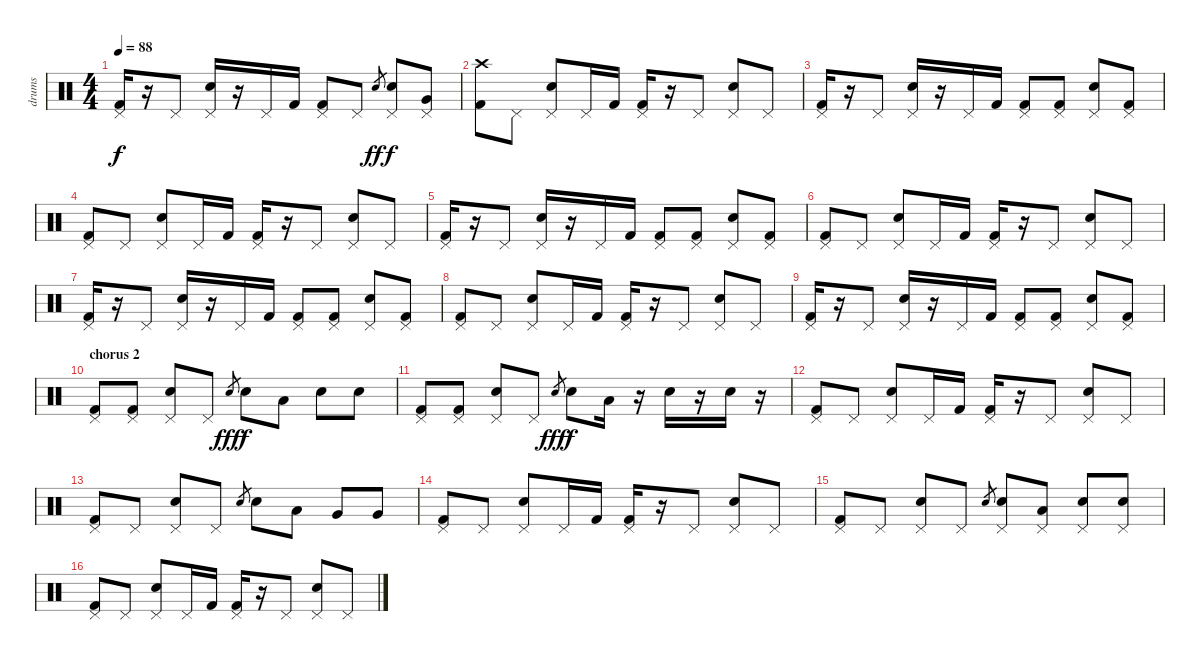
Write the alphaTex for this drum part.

\track ("drums" "drums") {instrument percussion}
\staff {score}
\articulation defaults
\ts (4 4)
\tempo 88
\clef neutral
\ks c
("Kick (hit) 2" "Pedal Hi-Hat (hit)").16{dy f} r.16 "Pedal Hi-Hat (hit)".8 ("Electric Snare (hit)" "Pedal Hi-Hat (hit)").16 r.16 "Pedal Hi-Hat (hit)".16 "Kick (hit) 2".16 ("Kick (hit) 2" "Pedal Hi-Hat (hit)").8 "Pedal Hi-Hat (hit)".8 "Electric Snare (hit)".8{gr dy ff} ("Electric Snare (hit)" "Pedal Hi-Hat (hit)").8{dy f} ("Very Low Tom (hit)" "Pedal Hi-Hat (hit)").8 |
("Kick (hit) 2" "Crash high (hit)").8 "Pedal Hi-Hat (hit)".8 ("Electric Snare (hit)" "Pedal Hi-Hat (hit)").8 "Pedal Hi-Hat (hit)".16 "Kick (hit) 2".16 ("Kick (hit) 2" "Pedal Hi-Hat (hit)").16 r.16 "Pedal Hi-Hat (hit)".8 ("Electric Snare (hit)" "Pedal Hi-Hat (hit)").8 "Pedal Hi-Hat (hit)".8 |
("Kick (hit) 2" "Pedal Hi-Hat (hit)").16 r.16 "Pedal Hi-Hat (hit)".8 ("Electric Snare (hit)" "Pedal Hi-Hat (hit)").16 r.16 "Pedal Hi-Hat (hit)".16 "Kick (hit) 2".16 ("Kick (hit) 2" "Pedal Hi-Hat (hit)").8 ("Kick (hit) 2" "Pedal Hi-Hat (hit)").8 ("Electric Snare (hit)" "Pedal Hi-Hat (hit)").8 ("Kick (hit) 2" "Pedal Hi-Hat (hit)").8 |
("Kick (hit) 2" "Pedal Hi-Hat (hit)").8 "Pedal Hi-Hat (hit)".8 ("Electric Snare (hit)" "Pedal Hi-Hat (hit)").8 "Pedal Hi-Hat (hit)".16 "Kick (hit) 2".16 ("Kick (hit) 2" "Pedal Hi-Hat (hit)").16 r.16 "Pedal Hi-Hat (hit)".8 ("Electric Snare (hit)" "Pedal Hi-Hat (hit)").8 "Pedal Hi-Hat (hit)".8 |
("Kick (hit) 2" "Pedal Hi-Hat (hit)").16 r.16 "Pedal Hi-Hat (hit)".8 ("Electric Snare (hit)" "Pedal Hi-Hat (hit)").16 r.16 "Pedal Hi-Hat (hit)".16 "Kick (hit) 2".16 ("Kick (hit) 2" "Pedal Hi-Hat (hit)").8 ("Kick (hit) 2" "Pedal Hi-Hat (hit)").8 ("Electric Snare (hit)" "Pedal Hi-Hat (hit)").8 ("Kick (hit) 2" "Pedal Hi-Hat (hit)").8 |
("Kick (hit) 2" "Pedal Hi-Hat (hit)").8 "Pedal Hi-Hat (hit)".8 ("Electric Snare (hit)" "Pedal Hi-Hat (hit)").8 "Pedal Hi-Hat (hit)".16 "Kick (hit) 2".16 ("Kick (hit) 2" "Pedal Hi-Hat (hit)").16 r.16 "Pedal Hi-Hat (hit)".8 ("Electric Snare (hit)" "Pedal Hi-Hat (hit)").8 "Pedal Hi-Hat (hit)".8 |
("Kick (hit) 2" "Pedal Hi-Hat (hit)").16 r.16 "Pedal Hi-Hat (hit)".8 ("Electric Snare (hit)" "Pedal Hi-Hat (hit)").16 r.16 "Pedal Hi-Hat (hit)".16 "Kick (hit) 2".16 ("Kick (hit) 2" "Pedal Hi-Hat (hit)").8 ("Kick (hit) 2" "Pedal Hi-Hat (hit)").8 ("Electric Snare (hit)" "Pedal Hi-Hat (hit)").8 ("Kick (hit) 2" "Pedal Hi-Hat (hit)").8 |
("Kick (hit) 2" "Pedal Hi-Hat (hit)").8 "Pedal Hi-Hat (hit)".8 ("Electric Snare (hit)" "Pedal Hi-Hat (hit)").8 "Pedal Hi-Hat (hit)".16 "Kick (hit) 2".16 ("Kick (hit) 2" "Pedal Hi-Hat (hit)").16 r.16 "Pedal Hi-Hat (hit)".8 ("Electric Snare (hit)" "Pedal Hi-Hat (hit)").8 "Pedal Hi-Hat (hit)".8 |
("Kick (hit) 2" "Pedal Hi-Hat (hit)").16 r.16 "Pedal Hi-Hat (hit)".8 ("Electric Snare (hit)" "Pedal Hi-Hat (hit)").16 r.16 "Pedal Hi-Hat (hit)".16 "Kick (hit) 2".16 ("Kick (hit) 2" "Pedal Hi-Hat (hit)").8 ("Kick (hit) 2" "Pedal Hi-Hat (hit)").8 ("Electric Snare (hit)" "Pedal Hi-Hat (hit)").8 ("Kick (hit) 2" "Pedal Hi-Hat (hit)").8 |
\section ("" "chorus 2")
("Kick (hit) 2" "Pedal Hi-Hat (hit)").8 ("Kick (hit) 2" "Pedal Hi-Hat (hit)").8 ("Electric Snare (hit)" "Pedal Hi-Hat (hit)").8 "Pedal Hi-Hat (hit)".8 "Electric Snare (hit)".8{gr dy fff} "Electric Snare (hit)".8{dy f} "Low Tom (hit)".8 "Electric Snare (hit)".8 "Electric Snare (hit)".8 |
("Kick (hit) 2" "Pedal Hi-Hat (hit)").8 ("Kick (hit) 2" "Pedal Hi-Hat (hit)").8 ("Electric Snare (hit)" "Pedal Hi-Hat (hit)").8 "Pedal Hi-Hat (hit)".8 "Electric Snare (hit)".8{gr dy fff} "Electric Snare (hit)".8{dy f} "Low Tom (hit)".16 r.16 "Electric Snare (hit)".16 r.16 "Electric Snare (hit)".16 r.16 |
("Kick (hit) 2" "Pedal Hi-Hat (hit)").8 "Pedal Hi-Hat (hit)".8 ("Electric Snare (hit)" "Pedal Hi-Hat (hit)").8 "Pedal Hi-Hat (hit)".16 "Kick (hit) 2".16 ("Kick (hit) 2" "Pedal Hi-Hat (hit)").16 r.16 "Pedal Hi-Hat (hit)".8 ("Electric Snare (hit)" "Pedal Hi-Hat (hit)").8 "Pedal Hi-Hat (hit)".8 |
("Kick (hit) 2" "Pedal Hi-Hat (hit)").8 "Pedal Hi-Hat (hit)".8 ("Electric Snare (hit)" "Pedal Hi-Hat (hit)").8 "Pedal Hi-Hat (hit)".8 "Electric Snare (hit)".8{gr} "Electric Snare (hit)".8 "Low Tom (hit)".8 "Very Low Tom (hit)".8 "Very Low Tom (hit)".8 |
("Kick (hit) 2" "Pedal Hi-Hat (hit)").8 "Pedal Hi-Hat (hit)".8 ("Electric Snare (hit)" "Pedal Hi-Hat (hit)").8 "Pedal Hi-Hat (hit)".16 "Kick (hit) 2".16 ("Kick (hit) 2" "Pedal Hi-Hat (hit)").16 r.16 "Pedal Hi-Hat (hit)".8 ("Electric Snare (hit)" "Pedal Hi-Hat (hit)").8 "Pedal Hi-Hat (hit)".8 |
("Kick (hit) 2" "Pedal Hi-Hat (hit)").8 "Pedal Hi-Hat (hit)".8 ("Electric Snare (hit)" "Pedal Hi-Hat (hit)").8 "Pedal Hi-Hat (hit)".8 "Electric Snare (hit)".8{gr} ("Electric Snare (hit)" "Pedal Hi-Hat (hit)").8 ("Low Tom (hit)" "Pedal Hi-Hat (hit)").8 ("Electric Snare (hit)" "Pedal Hi-Hat (hit)").8 ("Electric Snare (hit)" "Pedal Hi-Hat (hit)").8 |
("Kick (hit) 2" "Pedal Hi-Hat (hit)").8 "Pedal Hi-Hat (hit)".8 ("Electric Snare (hit)" "Pedal Hi-Hat (hit)").8 "Pedal Hi-Hat (hit)".16 "Kick (hit) 2".16 ("Kick (hit) 2" "Pedal Hi-Hat (hit)").16 r.16 "Pedal Hi-Hat (hit)".8 ("Electric Snare (hit)" "Pedal Hi-Hat (hit)").8 "Pedal Hi-Hat (hit)".8
